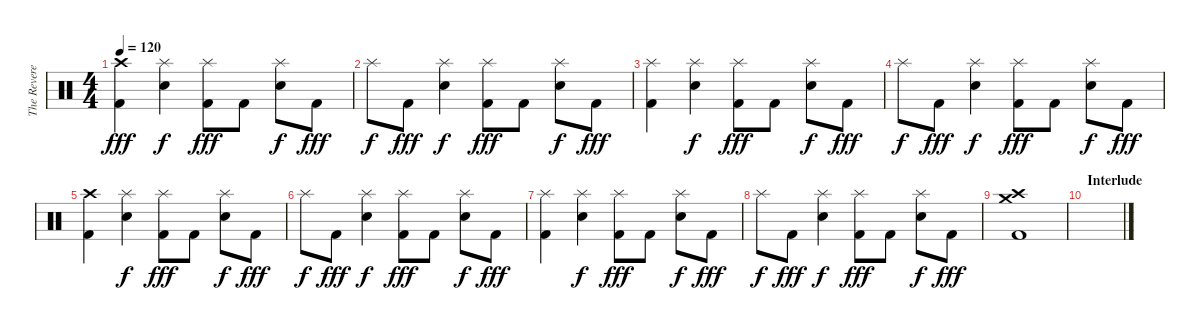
\track ("The Reverend" "The Revere") {instrument percussion}
\staff {score}
\articulation defaults
\ts (4 4)
\tempo 120
\clef neutral
\ks c
("Crash high (hit)" "Kick (hit) 2").4{dy fff} ("Splash (hit)" "Electric Snare (hit)").4{dy f} ("Splash (hit)" "Kick (hit) 2").8{dy fff} "Kick (hit) 2".8 ("Splash (hit)" "Electric Snare (hit)").8{dy f} "Kick (hit) 2".8{dy fff} |
"Splash (hit)".8{dy f} "Kick (hit) 2".8{dy fff} ("Splash (hit)" "Electric Snare (hit)").4{dy f} ("Splash (hit)" "Kick (hit) 2").8{dy fff} "Kick (hit) 2".8 ("Splash (hit)" "Electric Snare (hit)").8{dy f} "Kick (hit) 2".8{dy fff} |
("Splash (hit)" "Kick (hit) 2").4 ("Splash (hit)" "Electric Snare (hit)").4{dy f} ("Splash (hit)" "Kick (hit) 2").8{dy fff} "Kick (hit) 2".8 ("Splash (hit)" "Electric Snare (hit)").8{dy f} "Kick (hit) 2".8{dy fff} |
"Splash (hit)".8{dy f} "Kick (hit) 2".8{dy fff} ("Splash (hit)" "Electric Snare (hit)").4{dy f} ("Splash (hit)" "Kick (hit) 2").8{dy fff} "Kick (hit) 2".8 ("Splash (hit)" "Electric Snare (hit)").8{dy f} "Kick (hit) 2".8{dy fff} |
("Crash high (hit)" "Kick (hit) 2").4 ("Splash (hit)" "Electric Snare (hit)").4{dy f} ("Splash (hit)" "Kick (hit) 2").8{dy fff} "Kick (hit) 2".8 ("Splash (hit)" "Electric Snare (hit)").8{dy f} "Kick (hit) 2".8{dy fff} |
"Splash (hit)".8{dy f} "Kick (hit) 2".8{dy fff} ("Splash (hit)" "Electric Snare (hit)").4{dy f} ("Splash (hit)" "Kick (hit) 2").8{dy fff} "Kick (hit) 2".8 ("Splash (hit)" "Electric Snare (hit)").8{dy f} "Kick (hit) 2".8{dy fff} |
("Splash (hit)" "Kick (hit) 2").4 ("Splash (hit)" "Electric Snare (hit)").4{dy f} ("Splash (hit)" "Kick (hit) 2").8{dy fff} "Kick (hit) 2".8 ("Splash (hit)" "Electric Snare (hit)").8{dy f} "Kick (hit) 2".8{dy fff} |
"Splash (hit)".8{dy f} "Kick (hit) 2".8{dy fff} ("Splash (hit)" "Electric Snare (hit)").4{dy f} ("Splash (hit)" "Kick (hit) 2").8{dy fff} "Kick (hit) 2".8 ("Splash (hit)" "Electric Snare (hit)").8{dy f} "Kick (hit) 2".8{dy fff} |
("Crash medium (hit)" "Crash high (hit)" "Kick (hit) 2").1 |
\section ("" "Interlude")
